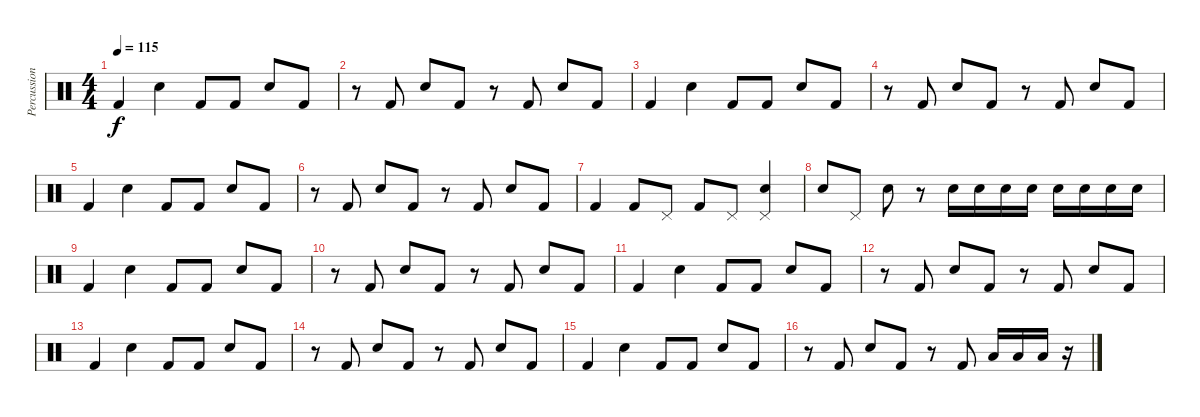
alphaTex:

\track ("Percussion" "Percussion") {instrument percussion}
\staff {score}
\articulation defaults
\ts (4 4)
\tempo 115
\clef neutral
\ks c "Kick (hit) 2".4{dy f} "Snare (hit) 2".4 "Kick (hit) 2".8 "Kick (hit) 2".8 "Snare (hit) 2".8 "Kick (hit) 2".8
|
r.8 "Kick (hit) 2".8 "Snare (hit) 2".8 "Kick (hit) 2".8 r.8 "Kick (hit) 2".8 "Snare (hit) 2".8 "Kick (hit) 2".8 |
"Kick (hit) 2".4 "Snare (hit) 2".4 "Kick (hit) 2".8 "Kick (hit) 2".8 "Snare (hit) 2".8 "Kick (hit) 2".8 |
r.8 "Kick (hit) 2".8 "Snare (hit) 2".8 "Kick (hit) 2".8 r.8 "Kick (hit) 2".8 "Snare (hit) 2".8 "Kick (hit) 2".8 |
"Kick (hit) 2".4 "Snare (hit) 2".4 "Kick (hit) 2".8 "Kick (hit) 2".8 "Snare (hit) 2".8 "Kick (hit) 2".8 |
r.8 "Kick (hit) 2".8 "Snare (hit) 2".8 "Kick (hit) 2".8 r.8 "Kick (hit) 2".8 "Snare (hit) 2".8 "Kick (hit) 2".8 |
"Kick (hit) 2".4 "Kick (hit) 2".8 "Pedal Hi-Hat (hit)".8 "Kick (hit) 2".8 "Pedal Hi-Hat (hit)".8 ("Pedal Hi-Hat (hit)" "Electric Snare (hit)").4 |
"Electric Snare (hit)".8 "Pedal Hi-Hat (hit)".8 "Electric Snare (hit)".8 r.8 "Electric Snare (hit)".16 "Electric Snare (hit)".16 "Electric Snare (hit)".16 "Electric Snare (hit)".16 "Electric Snare (hit)".16 "Electric Snare (hit)".16 "Electric Snare (hit)".16 "Electric Snare (hit)".16 |
"Kick (hit) 2".4 "Snare (hit) 2".4 "Kick (hit) 2".8 "Kick (hit) 2".8 "Snare (hit) 2".8 "Kick (hit) 2".8 |
r.8 "Kick (hit) 2".8 "Snare (hit) 2".8 "Kick (hit) 2".8 r.8 "Kick (hit) 2".8 "Snare (hit) 2".8 "Kick (hit) 2".8 |
"Kick (hit) 2".4 "Snare (hit) 2".4 "Kick (hit) 2".8 "Kick (hit) 2".8 "Snare (hit) 2".8 "Kick (hit) 2".8 |
r.8 "Kick (hit) 2".8 "Snare (hit) 2".8 "Kick (hit) 2".8 r.8 "Kick (hit) 2".8 "Snare (hit) 2".8 "Kick (hit) 2".8 |
"Kick (hit) 2".4 "Snare (hit) 2".4 "Kick (hit) 2".8 "Kick (hit) 2".8 "Snare (hit) 2".8 "Kick (hit) 2".8 |
r.8 "Kick (hit) 2".8 "Snare (hit) 2".8 "Kick (hit) 2".8 r.8 "Kick (hit) 2".8 "Snare (hit) 2".8 "Kick (hit) 2".8 |
"Kick (hit) 2".4 "Snare (hit) 2".4 "Kick (hit) 2".8 "Kick (hit) 2".8 "Snare (hit) 2".8 "Kick (hit) 2".8 |
r.8 "Kick (hit) 2".8 "Snare (hit) 2".8 "Kick (hit) 2".8 r.8 "Kick (hit) 2".8 "Low Tom (hit)".16 "Low Tom (hit)".16 "Low Tom (hit)".16 r.16
